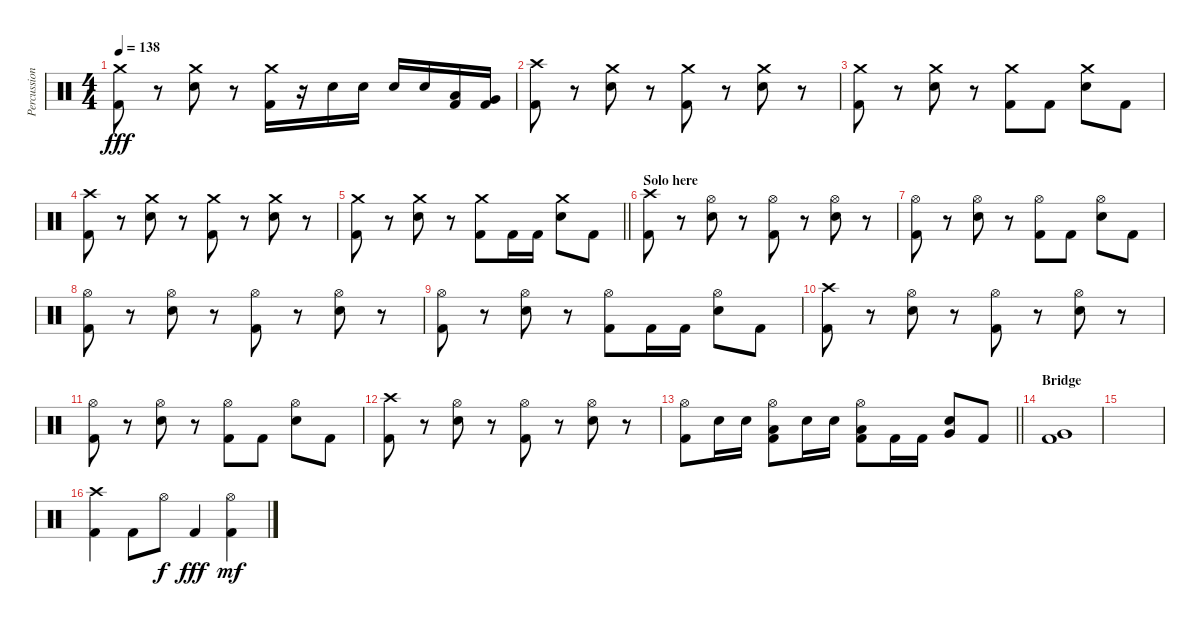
\track ("Percussion" "Percussion") {instrument percussion}
\staff {score}
\articulation defaults
\ts (4 4)
\tempo 138
\clef neutral
\ks c
("Kick (hit) 2" "Crash medium (hit)").8{dy fff} r.8 ("Snare (hit) 2" "Crash medium (hit)").8 r.8 ("Kick (hit) 2" "Crash medium (hit)").16 r.16 "Snare (hit) 2".16 "Snare (hit) 2".16 "Snare (hit) 2".16 "Snare (hit) 2".16 ("Kick (hit) 2" "Low Tom (hit)").16 ("Kick (hit) 2" "Very Low Tom (hit)").16 |
("Kick (hit) 2" "Crash high (hit)").8 r.8 ("Snare (hit) 2" "Crash medium (hit)").8 r.8 ("Kick (hit) 2" "Crash medium (hit)").8 r.8 ("Snare (hit) 2" "Crash medium (hit)").8 r.8 |
("Kick (hit) 2" "Crash medium (hit)").8 r.8 ("Snare (hit) 2" "Crash medium (hit)").8 r.8 ("Kick (hit) 2" "Crash medium (hit)").8 "Kick (hit) 2".8 ("Snare (hit) 2" "Crash medium (hit)").8 "Kick (hit) 2".8 |
("Kick (hit) 2" "Crash high (hit)").8 r.8 ("Snare (hit) 2" "Crash medium (hit)").8 r.8 ("Kick (hit) 2" "Crash medium (hit)").8 r.8 ("Snare (hit) 2" "Crash medium (hit)").8 r.8 |
\barLineRight lightlight
("Kick (hit) 2" "Crash medium (hit)").8 r.8 ("Snare (hit) 2" "Crash medium (hit)").8 r.8 ("Kick (hit) 2" "Crash medium (hit)").8 "Kick (hit) 2".16 "Kick (hit) 2".16 ("Snare (hit) 2" "Crash medium (hit)").8 "Kick (hit) 2".8 |
\section ("" "Solo here")
("Kick (hit) 2" "Crash high (hit)").8 r.8 ("Snare (hit) 2" "Hi-Hat (open)").8 r.8 ("Kick (hit) 2" "Hi-Hat (open)").8 r.8 ("Snare (hit) 2" "Hi-Hat (open)").8 r.8 |
("Kick (hit) 2" "Hi-Hat (open)").8 r.8 ("Snare (hit) 2" "Hi-Hat (open)").8 r.8 ("Kick (hit) 2" "Hi-Hat (open)").8 "Kick (hit) 2".8 ("Snare (hit) 2" "Hi-Hat (open)").8 "Kick (hit) 2".8 |
("Kick (hit) 2" "Hi-Hat (open)").8 r.8 ("Snare (hit) 2" "Hi-Hat (open)").8 r.8 ("Kick (hit) 2" "Hi-Hat (open)").8 r.8 ("Snare (hit) 2" "Hi-Hat (open)").8 r.8 |
("Kick (hit) 2" "Hi-Hat (open)").8 r.8 ("Snare (hit) 2" "Hi-Hat (open)").8 r.8 ("Kick (hit) 2" "Hi-Hat (open)").8 "Kick (hit) 2".16 "Kick (hit) 2".16 ("Snare (hit) 2" "Hi-Hat (open)").8 "Kick (hit) 2".8 |
("Kick (hit) 2" "Crash high (hit)").8 r.8 ("Snare (hit) 2" "Hi-Hat (open)").8 r.8 ("Kick (hit) 2" "Hi-Hat (open)").8 r.8 ("Snare (hit) 2" "Hi-Hat (open)").8 r.8 |
("Kick (hit) 2" "Hi-Hat (open)").8 r.8 ("Snare (hit) 2" "Hi-Hat (open)").8 r.8 ("Kick (hit) 2" "Hi-Hat (open)").8 "Kick (hit) 2".8 ("Snare (hit) 2" "Hi-Hat (open)").8 "Kick (hit) 2".8 |
("Kick (hit) 2" "Crash high (hit)").8 r.8 ("Snare (hit) 2" "Hi-Hat (open)").8 r.8 ("Kick (hit) 2" "Hi-Hat (open)").8 r.8 ("Snare (hit) 2" "Hi-Hat (open)").8 r.8 |
\barLineRight lightlight
("Kick (hit) 2" "Hi-Hat (open)").8 "Snare (hit) 2".16 "Snare (hit) 2".16 ("Kick (hit) 2" "Low Tom (hit)" "Hi-Hat (open)").8 "Snare (hit) 2".16 "Snare (hit) 2".16 ("Kick (hit) 2" "Low Tom (hit)" "Hi-Hat (open)").8 "Kick (hit) 2".16 "Kick (hit) 2".16 ("Snare (hit) 2" "Very Low Tom (hit)").8 "Kick (hit) 2".8 |
\section ("" "Bridge")
("Kick (hit) 2" "Very Low Tom (hit)").1 |
|
("Kick (hit) 2" "Crash high (hit)").4 "Kick (hit) 2".8 "Hi-Hat (open)".8{dy f} "Kick (hit) 2".4{dy fff} ("Kick (hit) 2" "Hi-Hat (open)").4{dy mf}
